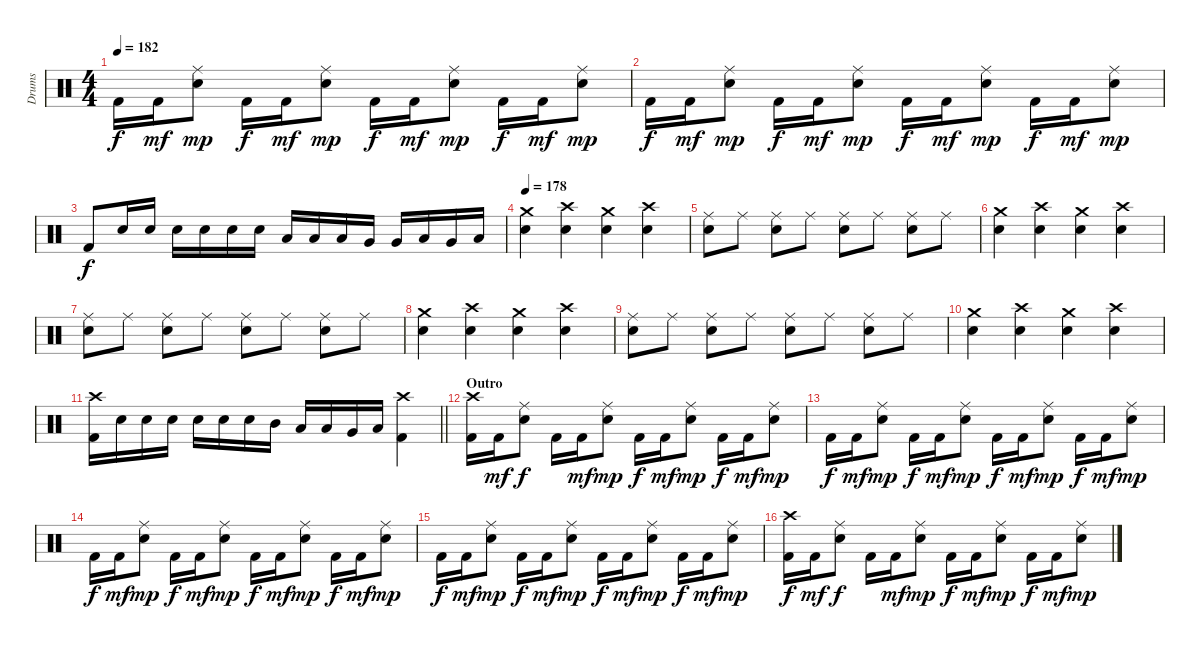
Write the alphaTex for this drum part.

\track ("Drums" "Drums") {instrument percussion}
\staff {score}
\articulation defaults
\ts (4 4)
\tempo 182
\clef neutral
\ks aminor "Kick (hit) 2".16{dy f} "Kick (hit) 2".16{dy mf}
("Ride (middle)" "Snare (hit) 2").8{dy mp} "Kick (hit) 2".16{dy f} "Kick (hit) 2".16{dy mf} ("Ride (middle)" "Snare (hit) 2").8{dy mp} "Kick (hit) 2".16{dy f} "Kick (hit) 2".16{dy mf} ("Ride (middle)" "Snare (hit) 2").8{dy mp} "Kick (hit) 2".16{dy f} "Kick (hit) 2".16{dy mf} ("Ride (middle)" "Snare (hit) 2").8{dy mp} |
"Kick (hit) 2".16{dy f} "Kick (hit) 2".16{dy mf} ("Ride (middle)" "Snare (hit) 2").8{dy mp} "Kick (hit) 2".16{dy f} "Kick (hit) 2".16{dy mf} ("Ride (middle)" "Snare (hit) 2").8{dy mp} "Kick (hit) 2".16{dy f} "Kick (hit) 2".16{dy mf} ("Ride (middle)" "Snare (hit) 2").8{dy mp} "Kick (hit) 2".16{dy f} "Kick (hit) 2".16{dy mf} ("Ride (middle)" "Snare (hit) 2").8{dy mp} |
"Kick (hit) 2".8{dy f} "Snare (hit) 2".16 "Snare (hit) 2".16 "Snare (hit) 2".16 "Snare (hit) 2".16 "Snare (hit) 2".16 "Snare (hit) 2".16 "Low Tom (hit)".16 "Low Tom (hit)".16 "Low Tom (hit)".16 "Very Low Tom (hit)".16 "Very Low Tom (hit)".16 "Low Tom (hit)".16 "Very Low Tom (hit)".16 "Low Floor Tom (hit)".16 |
\tempo 178
("Crash medium (hit)" "Snare (hit) 2").4 ("Crash high (hit)" "Snare (hit) 2").4 ("Crash medium (hit)" "Snare (hit) 2").4 ("Crash high (hit)" "Snare (hit) 2").4 |
("Ride (middle)" "Snare (hit) 2").8 "Ride (middle)".8 ("Ride (middle)" "Snare (hit) 2").8 "Ride (middle)".8 ("Ride (middle)" "Snare (hit) 2").8 "Ride (middle)".8 ("Ride (middle)" "Snare (hit) 2").8 "Ride (middle)".8 |
("Crash medium (hit)" "Snare (hit) 2").4 ("Crash high (hit)" "Snare (hit) 2").4 ("Crash medium (hit)" "Snare (hit) 2").4 ("Crash high (hit)" "Snare (hit) 2").4 |
("Ride (middle)" "Snare (hit) 2").8 "Ride (middle)".8 ("Ride (middle)" "Snare (hit) 2").8 "Ride (middle)".8 ("Ride (middle)" "Snare (hit) 2").8 "Ride (middle)".8 ("Ride (middle)" "Snare (hit) 2").8 "Ride (middle)".8 |
("Crash medium (hit)" "Snare (hit) 2").4 ("Crash high (hit)" "Snare (hit) 2").4 ("Crash medium (hit)" "Snare (hit) 2").4 ("Crash high (hit)" "Snare (hit) 2").4 |
("Ride (middle)" "Snare (hit) 2").8 "Ride (middle)".8 ("Ride (middle)" "Snare (hit) 2").8 "Ride (middle)".8 ("Ride (middle)" "Snare (hit) 2").8 "Ride (middle)".8 ("Ride (middle)" "Snare (hit) 2").8 "Ride (middle)".8 |
("Crash medium (hit)" "Snare (hit) 2").4 ("Crash high (hit)" "Snare (hit) 2").4 ("Crash medium (hit)" "Snare (hit) 2").4 ("Crash high (hit)" "Snare (hit) 2").4 |
\barLineRight lightlight
("Crash high (hit)" "Kick (hit) 2").16 "Snare (hit) 2".16 "Snare (hit) 2".16 "Snare (hit) 2".16 "Snare (hit) 2".16 "Snare (hit) 2".16 "Snare (hit) 2".16 "Mid Tom (hit)".16 "Low Tom (hit)".16 "Low Tom (hit)".16 "Very Low Tom (hit)".16 "Low Floor Tom (hit)".16 ("Crash high (hit)" "Kick (hit) 2").4 |
\section ("" "Outro")
("Crash high (hit)" "Kick (hit) 2").16 "Kick (hit) 2".16{dy mf} ("Ride (middle)" "Snare (hit) 2").8{dy f} "Kick (hit) 2".16 "Kick (hit) 2".16{dy mf} ("Ride (middle)" "Snare (hit) 2").8{dy mp} "Kick (hit) 2".16{dy f} "Kick (hit) 2".16{dy mf} ("Ride (middle)" "Snare (hit) 2").8{dy mp} "Kick (hit) 2".16{dy f} "Kick (hit) 2".16{dy mf} ("Ride (middle)" "Snare (hit) 2").8{dy mp} |
"Kick (hit) 2".16{dy f} "Kick (hit) 2".16{dy mf} ("Ride (middle)" "Snare (hit) 2").8{dy mp} "Kick (hit) 2".16{dy f} "Kick (hit) 2".16{dy mf} ("Ride (middle)" "Snare (hit) 2").8{dy mp} "Kick (hit) 2".16{dy f} "Kick (hit) 2".16{dy mf} ("Ride (middle)" "Snare (hit) 2").8{dy mp} "Kick (hit) 2".16{dy f} "Kick (hit) 2".16{dy mf} ("Ride (middle)" "Snare (hit) 2").8{dy mp} |
"Kick (hit) 2".16{dy f} "Kick (hit) 2".16{dy mf} ("Ride (middle)" "Snare (hit) 2").8{dy mp} "Kick (hit) 2".16{dy f} "Kick (hit) 2".16{dy mf} ("Ride (middle)" "Snare (hit) 2").8{dy mp} "Kick (hit) 2".16{dy f} "Kick (hit) 2".16{dy mf} ("Ride (middle)" "Snare (hit) 2").8{dy mp} "Kick (hit) 2".16{dy f} "Kick (hit) 2".16{dy mf} ("Ride (middle)" "Snare (hit) 2").8{dy mp} |
"Kick (hit) 2".16{dy f} "Kick (hit) 2".16{dy mf} ("Ride (middle)" "Snare (hit) 2").8{dy mp} "Kick (hit) 2".16{dy f} "Kick (hit) 2".16{dy mf} ("Ride (middle)" "Snare (hit) 2").8{dy mp} "Kick (hit) 2".16{dy f} "Kick (hit) 2".16{dy mf} ("Ride (middle)" "Snare (hit) 2").8{dy mp} "Kick (hit) 2".16{dy f} "Kick (hit) 2".16{dy mf} ("Ride (middle)" "Snare (hit) 2").8{dy mp} |
("Crash high (hit)" "Kick (hit) 2").16{dy f} "Kick (hit) 2".16{dy mf} ("Ride (middle)" "Snare (hit) 2").8{dy f} "Kick (hit) 2".16 "Kick (hit) 2".16{dy mf} ("Ride (middle)" "Snare (hit) 2").8{dy mp} "Kick (hit) 2".16{dy f} "Kick (hit) 2".16{dy mf} ("Ride (middle)" "Snare (hit) 2").8{dy mp} "Kick (hit) 2".16{dy f} "Kick (hit) 2".16{dy mf} ("Ride (middle)" "Snare (hit) 2").8{dy mp}
